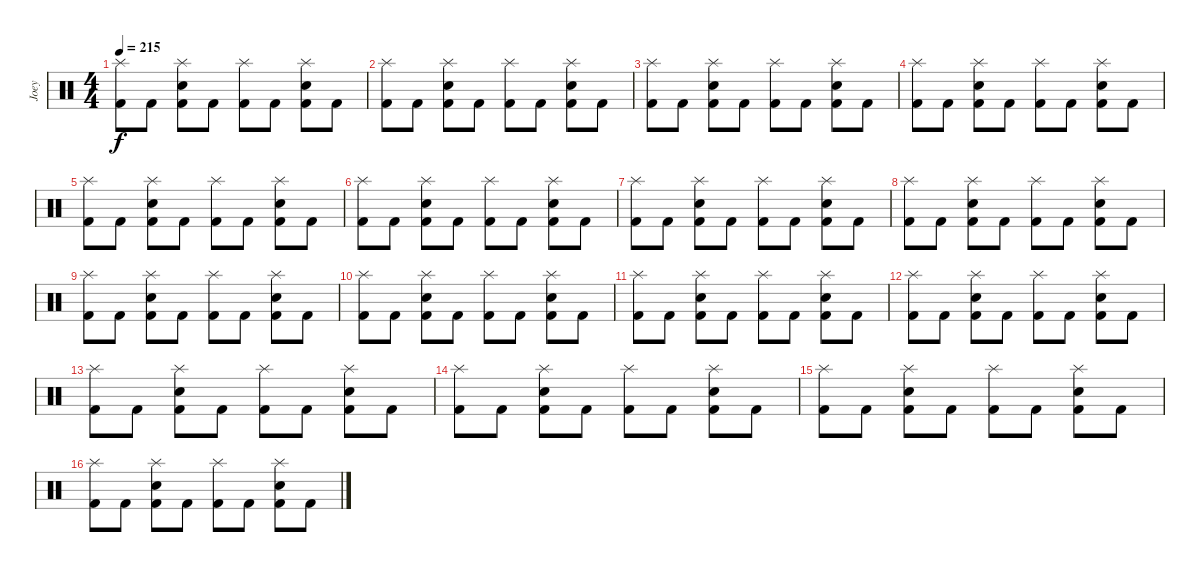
\track ("Joey" "Joey") {instrument percussion}
\staff {score}
\articulation defaults
\ts (4 4)
\tempo 215
\clef neutral
\ks c
("Splash (hit)" "Kick (hit) 2").8{dy f} "Kick (hit) 2".8 ("Splash (hit)" "Electric Snare (hit)" "Kick (hit) 2").8 "Kick (hit) 2".8 ("Splash (hit)" "Kick (hit) 2").8 "Kick (hit) 2".8 ("Splash (hit)" "Electric Snare (hit)" "Kick (hit) 2").8 "Kick (hit) 2".8 |
("Splash (hit)" "Kick (hit) 2").8 "Kick (hit) 2".8 ("Splash (hit)" "Electric Snare (hit)" "Kick (hit) 2").8 "Kick (hit) 2".8 ("Splash (hit)" "Kick (hit) 2").8 "Kick (hit) 2".8 ("Splash (hit)" "Electric Snare (hit)" "Kick (hit) 2").8 "Kick (hit) 2".8 |
("Splash (hit)" "Kick (hit) 2").8 "Kick (hit) 2".8 ("Splash (hit)" "Electric Snare (hit)" "Kick (hit) 2").8 "Kick (hit) 2".8 ("Splash (hit)" "Kick (hit) 2").8 "Kick (hit) 2".8 ("Splash (hit)" "Electric Snare (hit)" "Kick (hit) 2").8 "Kick (hit) 2".8 |
("Splash (hit)" "Kick (hit) 2").8 "Kick (hit) 2".8 ("Splash (hit)" "Electric Snare (hit)" "Kick (hit) 2").8 "Kick (hit) 2".8 ("Splash (hit)" "Kick (hit) 2").8 "Kick (hit) 2".8 ("Splash (hit)" "Electric Snare (hit)" "Kick (hit) 2").8 "Kick (hit) 2".8 |
("Splash (hit)" "Kick (hit) 2").8 "Kick (hit) 2".8 ("Splash (hit)" "Electric Snare (hit)" "Kick (hit) 2").8 "Kick (hit) 2".8 ("Splash (hit)" "Kick (hit) 2").8 "Kick (hit) 2".8 ("Splash (hit)" "Electric Snare (hit)" "Kick (hit) 2").8 "Kick (hit) 2".8 |
("Splash (hit)" "Kick (hit) 2").8 "Kick (hit) 2".8 ("Splash (hit)" "Electric Snare (hit)" "Kick (hit) 2").8 "Kick (hit) 2".8 ("Splash (hit)" "Kick (hit) 2").8 "Kick (hit) 2".8 ("Splash (hit)" "Electric Snare (hit)" "Kick (hit) 2").8 "Kick (hit) 2".8 |
("Splash (hit)" "Kick (hit) 2").8 "Kick (hit) 2".8 ("Splash (hit)" "Electric Snare (hit)" "Kick (hit) 2").8 "Kick (hit) 2".8 ("Splash (hit)" "Kick (hit) 2").8 "Kick (hit) 2".8 ("Splash (hit)" "Electric Snare (hit)" "Kick (hit) 2").8 "Kick (hit) 2".8 |
("Splash (hit)" "Kick (hit) 2").8 "Kick (hit) 2".8 ("Splash (hit)" "Electric Snare (hit)" "Kick (hit) 2").8 "Kick (hit) 2".8 ("Splash (hit)" "Kick (hit) 2").8 "Kick (hit) 2".8 ("Splash (hit)" "Electric Snare (hit)" "Kick (hit) 2").8 "Kick (hit) 2".8 |
("Splash (hit)" "Kick (hit) 2").8 "Kick (hit) 2".8 ("Splash (hit)" "Electric Snare (hit)" "Kick (hit) 2").8 "Kick (hit) 2".8 ("Splash (hit)" "Kick (hit) 2").8 "Kick (hit) 2".8 ("Splash (hit)" "Electric Snare (hit)" "Kick (hit) 2").8 "Kick (hit) 2".8 |
("Splash (hit)" "Kick (hit) 2").8 "Kick (hit) 2".8 ("Splash (hit)" "Electric Snare (hit)" "Kick (hit) 2").8 "Kick (hit) 2".8 ("Splash (hit)" "Kick (hit) 2").8 "Kick (hit) 2".8 ("Splash (hit)" "Electric Snare (hit)" "Kick (hit) 2").8 "Kick (hit) 2".8 |
("Splash (hit)" "Kick (hit) 2").8 "Kick (hit) 2".8 ("Splash (hit)" "Electric Snare (hit)" "Kick (hit) 2").8 "Kick (hit) 2".8 ("Splash (hit)" "Kick (hit) 2").8 "Kick (hit) 2".8 ("Splash (hit)" "Electric Snare (hit)" "Kick (hit) 2").8 "Kick (hit) 2".8 |
("Splash (hit)" "Kick (hit) 2").8 "Kick (hit) 2".8 ("Splash (hit)" "Electric Snare (hit)" "Kick (hit) 2").8 "Kick (hit) 2".8 ("Splash (hit)" "Kick (hit) 2").8 "Kick (hit) 2".8 ("Splash (hit)" "Electric Snare (hit)" "Kick (hit) 2").8 "Kick (hit) 2".8 |
("Splash (hit)" "Kick (hit) 2").8 "Kick (hit) 2".8 ("Splash (hit)" "Electric Snare (hit)" "Kick (hit) 2").8 "Kick (hit) 2".8 ("Splash (hit)" "Kick (hit) 2").8 "Kick (hit) 2".8 ("Splash (hit)" "Electric Snare (hit)" "Kick (hit) 2").8 "Kick (hit) 2".8 |
("Splash (hit)" "Kick (hit) 2").8 "Kick (hit) 2".8 ("Splash (hit)" "Electric Snare (hit)" "Kick (hit) 2").8 "Kick (hit) 2".8 ("Splash (hit)" "Kick (hit) 2").8 "Kick (hit) 2".8 ("Splash (hit)" "Electric Snare (hit)" "Kick (hit) 2").8 "Kick (hit) 2".8 |
("Splash (hit)" "Kick (hit) 2").8 "Kick (hit) 2".8 ("Splash (hit)" "Electric Snare (hit)" "Kick (hit) 2").8 "Kick (hit) 2".8 ("Splash (hit)" "Kick (hit) 2").8 "Kick (hit) 2".8 ("Splash (hit)" "Electric Snare (hit)" "Kick (hit) 2").8 "Kick (hit) 2".8 |
("Splash (hit)" "Kick (hit) 2").8 "Kick (hit) 2".8 ("Splash (hit)" "Electric Snare (hit)" "Kick (hit) 2").8 "Kick (hit) 2".8 ("Splash (hit)" "Kick (hit) 2").8 "Kick (hit) 2".8 ("Splash (hit)" "Electric Snare (hit)" "Kick (hit) 2").8 "Kick (hit) 2".8
